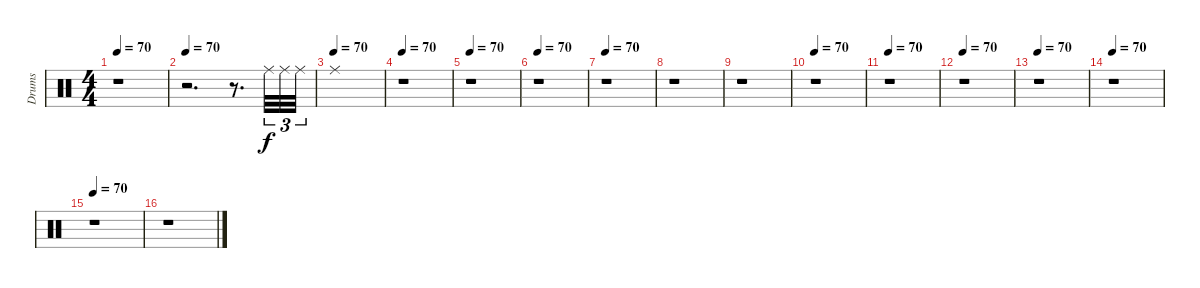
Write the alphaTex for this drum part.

\track ("Drums" "Drums") {instrument percussion}
\staff {score}
\articulation defaults
\ts (4 4)
\tempo 70
\clef neutral
\ks c
r.1{dy f} |
\tempo 70
r.2{d} r.8{d} "Ride (middle)".32{tu (3 2)} "Ride (middle)".32{tu (3 2)} "Ride (middle)".32{tu (3 2)} |
\tempo (70)
"Ride (middle)".1 |
\tempo 70
r.1 |
\tempo 70
r.1 |
\tempo 70
r.1 |
\tempo 70
r.1 |
r.1 |
r.1 |
\tempo 70
r.1 |
\tempo 70
r.1 |
\tempo 70
r.1 |
\tempo 70
r.1 |
\tempo 70
r.1 |
\tempo 70
r.1 |
r.1
